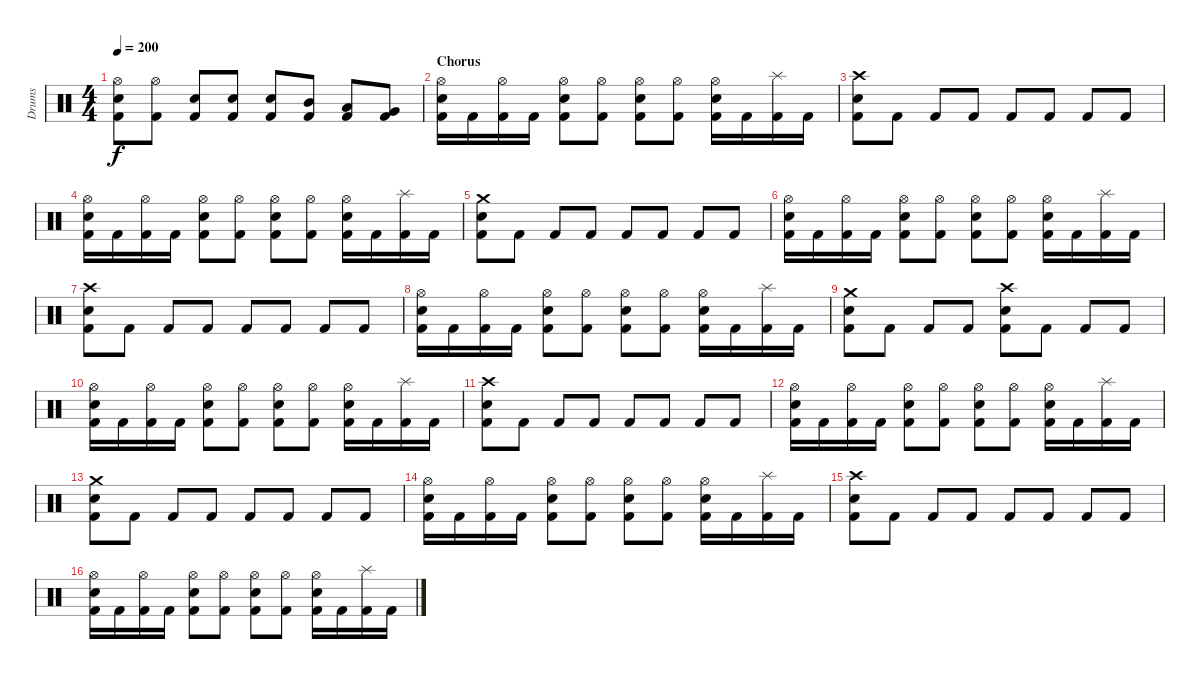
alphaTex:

\track ("Drums" "Drums") {instrument percussion}
\staff {score}
\articulation defaults
\ts (4 4)
\tempo 200
\clef neutral
\ks c
("Hi-Hat (open)" "Snare (hit) 2" "Kick (hit) 2").8{dy f} ("Hi-Hat (open)" "Kick (hit) 2").8 ("Snare (hit) 2" "Kick (hit) 2").8 ("Snare (hit) 2" "Kick (hit) 2").8 ("Snare (hit) 2" "Kick (hit) 2").8 ("Mid Tom (hit)" "Kick (hit) 2").8 ("Low Tom (hit)" "Kick (hit) 2").8 ("Very Low Tom (hit)" "Kick (hit) 2").8 |
\section ("" "Chorus")
("Hi-Hat (open)" "Snare (hit) 2" "Kick (hit) 2").16 "Kick (hit) 2".16 ("Hi-Hat (open)" "Kick (hit) 2").16 "Kick (hit) 2".16 ("Hi-Hat (open)" "Snare (hit) 2" "Kick (hit) 2").8 ("Hi-Hat (open)" "Kick (hit) 2").8 ("Hi-Hat (open)" "Snare (hit) 2" "Kick (hit) 2").8 ("Hi-Hat (open)" "Kick (hit) 2").8 ("Hi-Hat (open)" "Snare (hit) 2" "Kick (hit) 2").16 "Kick (hit) 2".16 ("Splash (hit)" "Kick (hit) 2").16 "Kick (hit) 2".16 |
("Crash high (hit)" "Snare (hit) 2" "Kick (hit) 2").8 "Kick (hit) 2".8 "Kick (hit) 2".8 "Kick (hit) 2".8 "Kick (hit) 2".8 "Kick (hit) 2".8 "Kick (hit) 2".8 "Kick (hit) 2".8 |
("Hi-Hat (open)" "Snare (hit) 2" "Kick (hit) 2").16 "Kick (hit) 2".16 ("Hi-Hat (open)" "Kick (hit) 2").16 "Kick (hit) 2".16 ("Hi-Hat (open)" "Snare (hit) 2" "Kick (hit) 2").8 ("Hi-Hat (open)" "Kick (hit) 2").8 ("Hi-Hat (open)" "Snare (hit) 2" "Kick (hit) 2").8 ("Hi-Hat (open)" "Kick (hit) 2").8 ("Hi-Hat (open)" "Snare (hit) 2" "Kick (hit) 2").16 "Kick (hit) 2".16 ("Splash (hit)" "Kick (hit) 2").16 "Kick (hit) 2".16 |
("Crash medium (hit)" "Snare (hit) 2" "Kick (hit) 2").8 "Kick (hit) 2".8 "Kick (hit) 2".8 "Kick (hit) 2".8 "Kick (hit) 2".8 "Kick (hit) 2".8 "Kick (hit) 2".8 "Kick (hit) 2".8 |
("Hi-Hat (open)" "Snare (hit) 2" "Kick (hit) 2").16 "Kick (hit) 2".16 ("Hi-Hat (open)" "Kick (hit) 2").16 "Kick (hit) 2".16 ("Hi-Hat (open)" "Snare (hit) 2" "Kick (hit) 2").8 ("Hi-Hat (open)" "Kick (hit) 2").8 ("Hi-Hat (open)" "Snare (hit) 2" "Kick (hit) 2").8 ("Hi-Hat (open)" "Kick (hit) 2").8 ("Hi-Hat (open)" "Snare (hit) 2" "Kick (hit) 2").16 "Kick (hit) 2".16 ("Splash (hit)" "Kick (hit) 2").16 "Kick (hit) 2".16 |
("Crash high (hit)" "Snare (hit) 2" "Kick (hit) 2").8 "Kick (hit) 2".8 "Kick (hit) 2".8 "Kick (hit) 2".8 "Kick (hit) 2".8 "Kick (hit) 2".8 "Kick (hit) 2".8 "Kick (hit) 2".8 |
("Hi-Hat (open)" "Snare (hit) 2" "Kick (hit) 2").16 "Kick (hit) 2".16 ("Hi-Hat (open)" "Kick (hit) 2").16 "Kick (hit) 2".16 ("Hi-Hat (open)" "Snare (hit) 2" "Kick (hit) 2").8 ("Hi-Hat (open)" "Kick (hit) 2").8 ("Hi-Hat (open)" "Snare (hit) 2" "Kick (hit) 2").8 ("Hi-Hat (open)" "Kick (hit) 2").8 ("Hi-Hat (open)" "Snare (hit) 2" "Kick (hit) 2").16 "Kick (hit) 2".16 ("Splash (hit)" "Kick (hit) 2").16 "Kick (hit) 2".16 |
("Crash medium (hit)" "Snare (hit) 2" "Kick (hit) 2").8 "Kick (hit) 2".8 "Kick (hit) 2".8 "Kick (hit) 2".8 ("Crash high (hit)" "Snare (hit) 2" "Kick (hit) 2").8 "Kick (hit) 2".8 "Kick (hit) 2".8 "Kick (hit) 2".8 |
("Hi-Hat (open)" "Snare (hit) 2" "Kick (hit) 2").16 "Kick (hit) 2".16 ("Hi-Hat (open)" "Kick (hit) 2").16 "Kick (hit) 2".16 ("Hi-Hat (open)" "Snare (hit) 2" "Kick (hit) 2").8 ("Hi-Hat (open)" "Kick (hit) 2").8 ("Hi-Hat (open)" "Snare (hit) 2" "Kick (hit) 2").8 ("Hi-Hat (open)" "Kick (hit) 2").8 ("Hi-Hat (open)" "Snare (hit) 2" "Kick (hit) 2").16 "Kick (hit) 2".16 ("Splash (hit)" "Kick (hit) 2").16 "Kick (hit) 2".16 |
("Crash high (hit)" "Snare (hit) 2" "Kick (hit) 2").8 "Kick (hit) 2".8 "Kick (hit) 2".8 "Kick (hit) 2".8 "Kick (hit) 2".8 "Kick (hit) 2".8 "Kick (hit) 2".8 "Kick (hit) 2".8 |
("Hi-Hat (open)" "Snare (hit) 2" "Kick (hit) 2").16 "Kick (hit) 2".16 ("Hi-Hat (open)" "Kick (hit) 2").16 "Kick (hit) 2".16 ("Hi-Hat (open)" "Snare (hit) 2" "Kick (hit) 2").8 ("Hi-Hat (open)" "Kick (hit) 2").8 ("Hi-Hat (open)" "Snare (hit) 2" "Kick (hit) 2").8 ("Hi-Hat (open)" "Kick (hit) 2").8 ("Hi-Hat (open)" "Snare (hit) 2" "Kick (hit) 2").16 "Kick (hit) 2".16 ("Splash (hit)" "Kick (hit) 2").16 "Kick (hit) 2".16 |
("Crash medium (hit)" "Snare (hit) 2" "Kick (hit) 2").8 "Kick (hit) 2".8 "Kick (hit) 2".8 "Kick (hit) 2".8 "Kick (hit) 2".8 "Kick (hit) 2".8 "Kick (hit) 2".8 "Kick (hit) 2".8 |
("Hi-Hat (open)" "Snare (hit) 2" "Kick (hit) 2").16 "Kick (hit) 2".16 ("Hi-Hat (open)" "Kick (hit) 2").16 "Kick (hit) 2".16 ("Hi-Hat (open)" "Snare (hit) 2" "Kick (hit) 2").8 ("Hi-Hat (open)" "Kick (hit) 2").8 ("Hi-Hat (open)" "Snare (hit) 2" "Kick (hit) 2").8 ("Hi-Hat (open)" "Kick (hit) 2").8 ("Hi-Hat (open)" "Snare (hit) 2" "Kick (hit) 2").16 "Kick (hit) 2".16 ("Splash (hit)" "Kick (hit) 2").16 "Kick (hit) 2".16 |
("Crash high (hit)" "Snare (hit) 2" "Kick (hit) 2").8 "Kick (hit) 2".8 "Kick (hit) 2".8 "Kick (hit) 2".8 "Kick (hit) 2".8 "Kick (hit) 2".8 "Kick (hit) 2".8 "Kick (hit) 2".8 |
("Hi-Hat (open)" "Snare (hit) 2" "Kick (hit) 2").16 "Kick (hit) 2".16 ("Hi-Hat (open)" "Kick (hit) 2").16 "Kick (hit) 2".16 ("Hi-Hat (open)" "Snare (hit) 2" "Kick (hit) 2").8 ("Hi-Hat (open)" "Kick (hit) 2").8 ("Hi-Hat (open)" "Snare (hit) 2" "Kick (hit) 2").8 ("Hi-Hat (open)" "Kick (hit) 2").8 ("Hi-Hat (open)" "Snare (hit) 2" "Kick (hit) 2").16 "Kick (hit) 2".16 ("Splash (hit)" "Kick (hit) 2").16 "Kick (hit) 2".16
